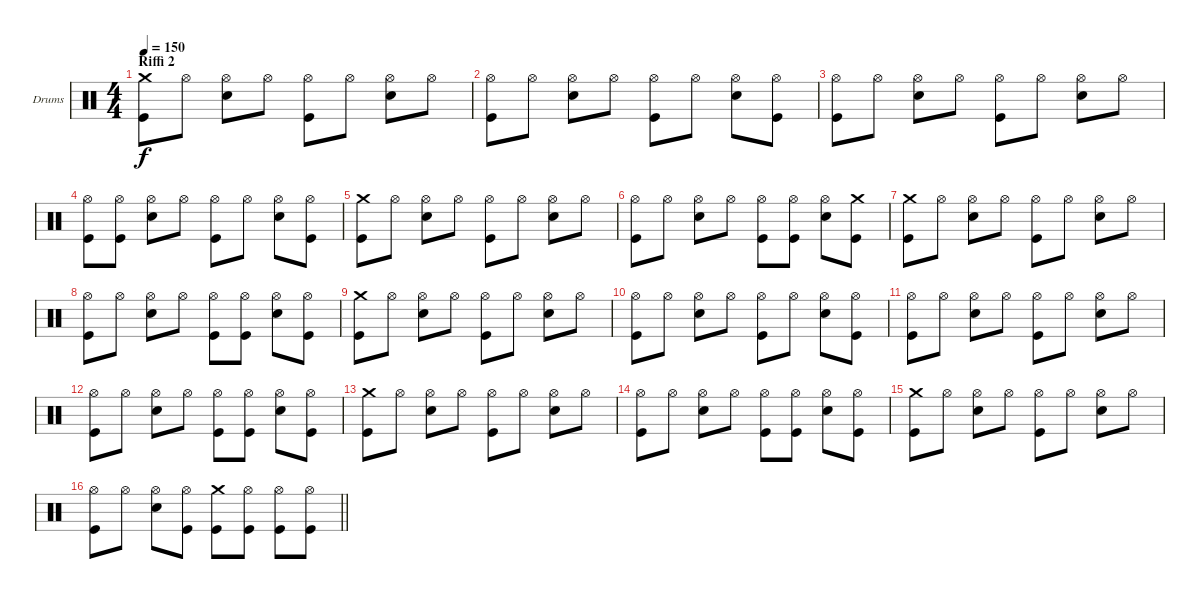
\bracketExtendMode groupsimilarinstruments
\firstSystemTrackNameOrientation horizontal
\otherSystemsTrackNameOrientation horizontal
\track ("Drumkit" "Drums") {instrument percussion}
\staff {score}
\articulation defaults
\ts (4 4)
\section ("" "Riffi 2")
\tempo 150
\clef neutral
\ks c
("Crash medium (hit)" "Kick (hit)").8{dy f} "Hi-Hat (open)".8 ("Hi-Hat (open)" "Snare (hit) 2").8 "Hi-Hat (open)".8 ("Hi-Hat (open)" "Kick (hit)").8 "Hi-Hat (open)".8 ("Hi-Hat (open)" "Snare (hit) 2").8 "Hi-Hat (open)".8 |
("Hi-Hat (open)" "Kick (hit)").8 "Hi-Hat (open)".8 ("Hi-Hat (open)" "Snare (hit) 2").8 "Hi-Hat (open)".8 ("Hi-Hat (open)" "Kick (hit)").8 "Hi-Hat (open)".8 ("Hi-Hat (open)" "Snare (hit) 2").8 ("Hi-Hat (open)" "Kick (hit)").8 |
("Hi-Hat (open)" "Kick (hit)").8 "Hi-Hat (open)".8 ("Hi-Hat (open)" "Snare (hit) 2").8 "Hi-Hat (open)".8 ("Hi-Hat (open)" "Kick (hit)").8 "Hi-Hat (open)".8 ("Hi-Hat (open)" "Snare (hit) 2").8 "Hi-Hat (open)".8 |
("Hi-Hat (open)" "Kick (hit)").8 ("Hi-Hat (open)" "Kick (hit)").8 ("Hi-Hat (open)" "Snare (hit) 2").8 "Hi-Hat (open)".8 ("Hi-Hat (open)" "Kick (hit)").8 "Hi-Hat (open)".8 ("Hi-Hat (open)" "Snare (hit) 2").8 ("Hi-Hat (open)" "Kick (hit)").8 |
("Crash medium (hit)" "Kick (hit)").8 "Hi-Hat (open)".8 ("Hi-Hat (open)" "Snare (hit) 2").8 "Hi-Hat (open)".8 ("Hi-Hat (open)" "Kick (hit)").8 "Hi-Hat (open)".8 ("Hi-Hat (open)" "Snare (hit) 2").8 "Hi-Hat (open)".8 |
("Hi-Hat (open)" "Kick (hit)").8 "Hi-Hat (open)".8 ("Hi-Hat (open)" "Snare (hit) 2").8 "Hi-Hat (open)".8 ("Hi-Hat (open)" "Kick (hit)").8 ("Hi-Hat (open)" "Kick (hit)").8 ("Hi-Hat (open)" "Snare (hit) 2").8 ("Crash medium (hit)" "Kick (hit)").8 |
("Crash medium (hit)" "Kick (hit)").8 "Hi-Hat (open)".8 ("Hi-Hat (open)" "Snare (hit) 2").8 "Hi-Hat (open)".8 ("Hi-Hat (open)" "Kick (hit)").8 "Hi-Hat (open)".8 ("Hi-Hat (open)" "Snare (hit) 2").8 "Hi-Hat (open)".8 |
("Hi-Hat (open)" "Kick (hit)").8 "Hi-Hat (open)".8 ("Hi-Hat (open)" "Snare (hit) 2").8 "Hi-Hat (open)".8 ("Hi-Hat (open)" "Kick (hit)").8 ("Hi-Hat (open)" "Kick (hit)").8 ("Hi-Hat (open)" "Snare (hit) 2").8 ("Hi-Hat (open)" "Kick (hit)").8 |
("Crash medium (hit)" "Kick (hit)").8 "Hi-Hat (open)".8 ("Hi-Hat (open)" "Snare (hit) 2").8 "Hi-Hat (open)".8 ("Hi-Hat (open)" "Kick (hit)").8 "Hi-Hat (open)".8 ("Hi-Hat (open)" "Snare (hit) 2").8 "Hi-Hat (open)".8 |
("Hi-Hat (open)" "Kick (hit)").8 "Hi-Hat (open)".8 ("Hi-Hat (open)" "Snare (hit) 2").8 "Hi-Hat (open)".8 ("Hi-Hat (open)" "Kick (hit)").8 "Hi-Hat (open)".8 ("Hi-Hat (open)" "Snare (hit) 2").8 ("Hi-Hat (open)" "Kick (hit)").8 |
("Hi-Hat (open)" "Kick (hit)").8 "Hi-Hat (open)".8 ("Hi-Hat (open)" "Snare (hit) 2").8 "Hi-Hat (open)".8 ("Hi-Hat (open)" "Kick (hit)").8 "Hi-Hat (open)".8 ("Hi-Hat (open)" "Snare (hit) 2").8 "Hi-Hat (open)".8 |
("Hi-Hat (open)" "Kick (hit)").8 "Hi-Hat (open)".8 ("Hi-Hat (open)" "Snare (hit) 2").8 "Hi-Hat (open)".8 ("Hi-Hat (open)" "Kick (hit)").8 ("Hi-Hat (open)" "Kick (hit)").8 ("Hi-Hat (open)" "Snare (hit) 2").8 ("Hi-Hat (open)" "Kick (hit)").8 |
("Crash medium (hit)" "Kick (hit)").8 "Hi-Hat (open)".8 ("Hi-Hat (open)" "Snare (hit) 2").8 "Hi-Hat (open)".8 ("Hi-Hat (open)" "Kick (hit)").8 "Hi-Hat (open)".8 ("Hi-Hat (open)" "Snare (hit) 2").8 "Hi-Hat (open)".8 |
("Hi-Hat (open)" "Kick (hit)").8 "Hi-Hat (open)".8 ("Hi-Hat (open)" "Snare (hit) 2").8 "Hi-Hat (open)".8 ("Hi-Hat (open)" "Kick (hit)").8 ("Hi-Hat (open)" "Kick (hit)").8 ("Hi-Hat (open)" "Snare (hit) 2").8 ("Hi-Hat (open)" "Kick (hit)").8 |
("Crash medium (hit)" "Kick (hit)").8 "Hi-Hat (open)".8 ("Hi-Hat (open)" "Snare (hit) 2").8 "Hi-Hat (open)".8 ("Hi-Hat (open)" "Kick (hit)").8 "Hi-Hat (open)".8 ("Hi-Hat (open)" "Snare (hit) 2").8 "Hi-Hat (open)".8 |
\barLineRight lightlight
("Hi-Hat (open)" "Kick (hit)").8 "Hi-Hat (open)".8 ("Hi-Hat (open)" "Snare (hit) 2").8 ("Hi-Hat (open)" "Kick (hit)").8 ("Crash medium (hit)" "Kick (hit)").8 ("Hi-Hat (open)" "Kick (hit)").8 ("Hi-Hat (open)" "Kick (hit)").8 ("Hi-Hat (open)" "Kick (hit)").8
